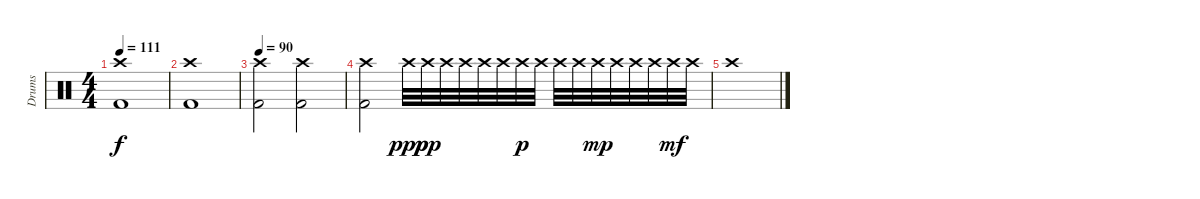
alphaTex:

\track ("Drums" "Drums") {instrument percussion}
\staff {score}
\articulation defaults
\ts (4 4)
\tempo 111
\clef neutral
\ks c
("Crash high (hit)" "Kick (hit) 2").1{dy f} |
("Crash high (hit)" "Kick (hit) 2").1 |
\tempo 90
("Crash high (hit)" "Kick (hit) 2").2 ("Crash high (hit)" "Kick (hit) 2").2 |
("Crash high (hit)" "Kick (hit) 2").2 "Crash high (hit)".32{dy ppp} "Crash high (hit)".32{dy pp} "Crash high (hit)".32 "Crash high (hit)".32 "Crash high (hit)".32 "Crash high (hit)".32 "Crash high (hit)".32{dy p} "Crash high (hit)".32 "Crash high (hit)".32 "Crash high (hit)".32 "Crash high (hit)".32{dy mp} "Crash high (hit)".32 "Crash high (hit)".32 "Crash high (hit)".32 "Crash high (hit)".32{dy mf} "Crash high (hit)".32 |
"Crash high (hit)".1
